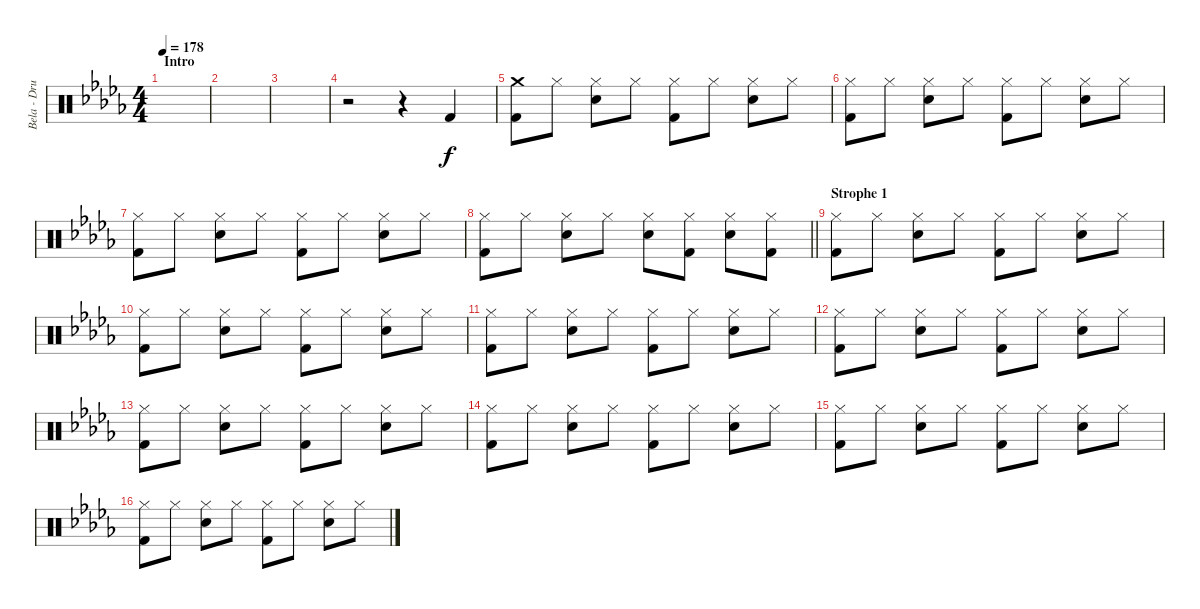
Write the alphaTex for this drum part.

\track ("Bela - Drums" "Bela - Dru") {instrument percussion}
\staff {score}
\articulation defaults
\ts (4 4)
\section ("" "Intro")
\tempo 178
\clef neutral
\ks db
|
|
|
r.2 r.4 "Kick (hit) 2".4 |
("Crash medium (hit)" "Kick (hit) 2").8 "Hi-Hat (closed)".8 ("Hi-Hat (closed)" "Snare (hit) 2").8 "Hi-Hat (closed)".8 ("Hi-Hat (closed)" "Kick (hit) 2").8 "Hi-Hat (closed)".8 ("Hi-Hat (closed)" "Snare (hit) 2").8 "Hi-Hat (closed)".8 |
("Hi-Hat (closed)" "Kick (hit) 2").8 "Hi-Hat (closed)".8 ("Hi-Hat (closed)" "Snare (hit) 2").8 "Hi-Hat (closed)".8 ("Hi-Hat (closed)" "Kick (hit) 2").8 "Hi-Hat (closed)".8 ("Hi-Hat (closed)" "Snare (hit) 2").8 "Hi-Hat (closed)".8 |
("Hi-Hat (closed)" "Kick (hit) 2").8 "Hi-Hat (closed)".8 ("Hi-Hat (closed)" "Snare (hit) 2").8 "Hi-Hat (closed)".8 ("Hi-Hat (closed)" "Kick (hit) 2").8 "Hi-Hat (closed)".8 ("Hi-Hat (closed)" "Snare (hit) 2").8 "Hi-Hat (closed)".8 |
\barLineRight lightlight
("Hi-Hat (closed)" "Kick (hit) 2").8 "Hi-Hat (closed)".8 ("Hi-Hat (closed)" "Snare (hit) 2").8 "Hi-Hat (closed)".8 ("Hi-Hat (closed)" "Snare (hit) 2").8 ("Hi-Hat (closed)" "Kick (hit) 2").8 ("Hi-Hat (closed)" "Snare (hit) 2").8 ("Hi-Hat (closed)" "Kick (hit) 2").8 |
\section ("" "Strophe 1")
("Hi-Hat (closed)" "Kick (hit) 2").8 "Hi-Hat (closed)".8 ("Hi-Hat (closed)" "Snare (hit) 2").8 "Hi-Hat (closed)".8 ("Hi-Hat (closed)" "Kick (hit) 2").8 "Hi-Hat (closed)".8 ("Hi-Hat (closed)" "Snare (hit) 2").8 "Hi-Hat (closed)".8 |
("Hi-Hat (closed)" "Kick (hit) 2").8 "Hi-Hat (closed)".8 ("Hi-Hat (closed)" "Snare (hit) 2").8 "Hi-Hat (closed)".8 ("Hi-Hat (closed)" "Kick (hit) 2").8 "Hi-Hat (closed)".8 ("Hi-Hat (closed)" "Snare (hit) 2").8 "Hi-Hat (closed)".8 |
("Hi-Hat (closed)" "Kick (hit) 2").8 "Hi-Hat (closed)".8 ("Hi-Hat (closed)" "Snare (hit) 2").8 "Hi-Hat (closed)".8 ("Hi-Hat (closed)" "Kick (hit) 2").8 "Hi-Hat (closed)".8 ("Hi-Hat (closed)" "Snare (hit) 2").8 "Hi-Hat (closed)".8 |
("Hi-Hat (closed)" "Kick (hit) 2").8 "Hi-Hat (closed)".8 ("Hi-Hat (closed)" "Snare (hit) 2").8 "Hi-Hat (closed)".8 ("Hi-Hat (closed)" "Kick (hit) 2").8 "Hi-Hat (closed)".8 ("Hi-Hat (closed)" "Snare (hit) 2").8 "Hi-Hat (closed)".8 |
("Hi-Hat (closed)" "Kick (hit) 2").8 "Hi-Hat (closed)".8 ("Hi-Hat (closed)" "Snare (hit) 2").8 "Hi-Hat (closed)".8 ("Hi-Hat (closed)" "Kick (hit) 2").8 "Hi-Hat (closed)".8 ("Hi-Hat (closed)" "Snare (hit) 2").8 "Hi-Hat (closed)".8 |
("Hi-Hat (closed)" "Kick (hit) 2").8 "Hi-Hat (closed)".8 ("Hi-Hat (closed)" "Snare (hit) 2").8 "Hi-Hat (closed)".8 ("Hi-Hat (closed)" "Kick (hit) 2").8 "Hi-Hat (closed)".8 ("Hi-Hat (closed)" "Snare (hit) 2").8 "Hi-Hat (closed)".8 |
("Hi-Hat (closed)" "Kick (hit) 2").8 "Hi-Hat (closed)".8 ("Hi-Hat (closed)" "Snare (hit) 2").8 "Hi-Hat (closed)".8 ("Hi-Hat (closed)" "Kick (hit) 2").8 "Hi-Hat (closed)".8 ("Hi-Hat (closed)" "Snare (hit) 2").8 "Hi-Hat (closed)".8 |
("Hi-Hat (closed)" "Kick (hit) 2").8 "Hi-Hat (closed)".8 ("Hi-Hat (closed)" "Snare (hit) 2").8 "Hi-Hat (closed)".8 ("Hi-Hat (closed)" "Kick (hit) 2").8 "Hi-Hat (closed)".8 ("Hi-Hat (closed)" "Snare (hit) 2").8 "Hi-Hat (closed)".8
